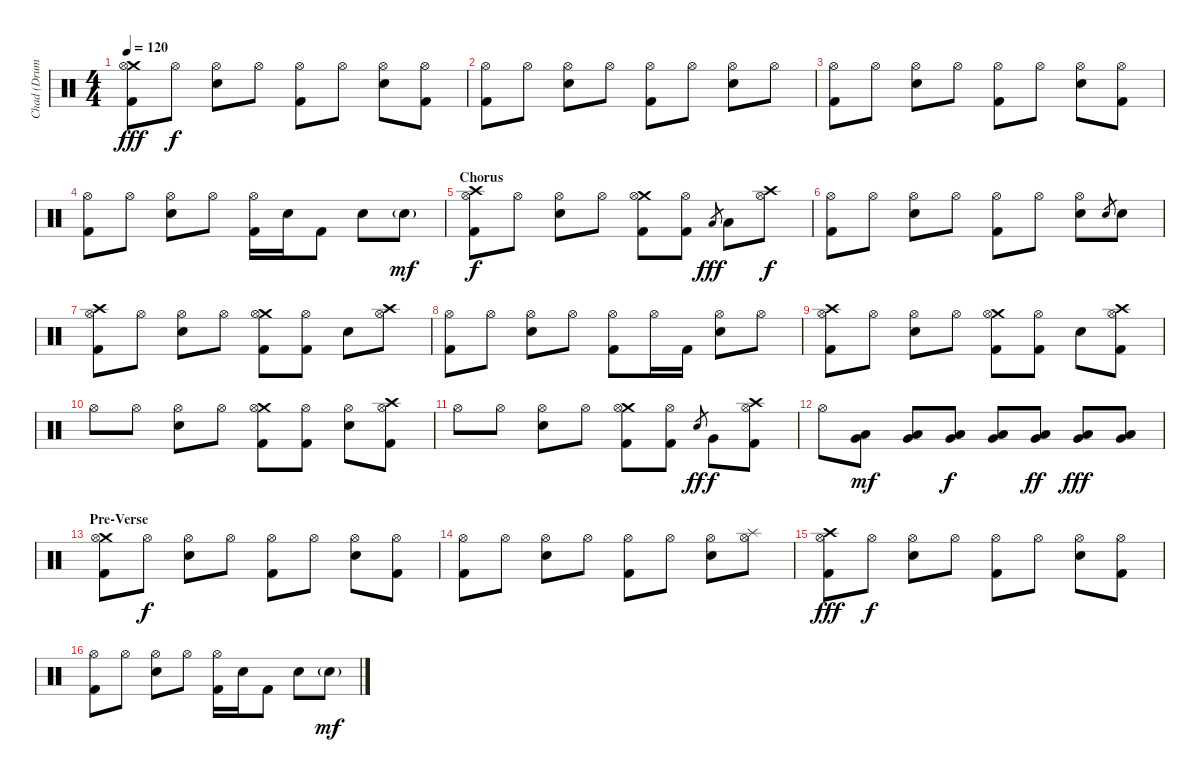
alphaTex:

\track ("Chad (Drums)" "Chad (Drum") {instrument percussion}
\staff {score}
\articulation defaults
\ts (4 4)
\tempo 120
\clef neutral
\ks c
("Crash medium (hit)" "Hi-Hat (open)" "Kick (hit) 2").8{dy fff} "Hi-Hat (open)".8{dy f} ("Hi-Hat (open)" "Snare (hit) 2").8 "Hi-Hat (open)".8 ("Hi-Hat (open)" "Kick (hit) 2").8 "Hi-Hat (open)".8 ("Hi-Hat (open)" "Snare (hit) 2").8 ("Hi-Hat (open)" "Kick (hit) 2").8 |
("Hi-Hat (open)" "Kick (hit) 2").8 "Hi-Hat (open)".8 ("Hi-Hat (open)" "Snare (hit) 2").8 "Hi-Hat (open)".8 ("Hi-Hat (open)" "Kick (hit) 2").8 "Hi-Hat (open)".8 ("Hi-Hat (open)" "Snare (hit) 2").8 "Hi-Hat (open)".8 |
("Hi-Hat (open)" "Kick (hit) 2").8 "Hi-Hat (open)".8 ("Hi-Hat (open)" "Snare (hit) 2").8 "Hi-Hat (open)".8 ("Hi-Hat (open)" "Kick (hit) 2").8 "Hi-Hat (open)".8 ("Hi-Hat (open)" "Snare (hit) 2").8 ("Hi-Hat (open)" "Kick (hit) 2").8 |
("Hi-Hat (open)" "Kick (hit) 2").8 "Hi-Hat (open)".8 ("Hi-Hat (open)" "Snare (hit) 2").8 "Hi-Hat (open)".8 ("Hi-Hat (open)" "Kick (hit) 2").16 "Snare (hit) 2".16 "Kick (hit) 2".8 "Snare (hit) 2".8 "Snare (hit) 2"{g}.8{dy mf} |
\section ("" "Chorus")
("Crash high (hit)" "Hi-Hat (open)" "Kick (hit) 2").8{dy f} "Hi-Hat (open)".8 ("Hi-Hat (open)" "Snare (hit) 2").8 "Hi-Hat (open)".8 ("Crash medium (hit)" "Hi-Hat (open)" "Kick (hit) 2").8 ("Hi-Hat (open)" "Kick (hit) 2").8 "Low Floor Tom (hit)".8{gr dy fff} "Low Floor Tom (hit)".8 ("Crash high (hit)" "Hi-Hat (open)").8{dy f} |
("Hi-Hat (open)" "Kick (hit) 2").8 "Hi-Hat (open)".8 ("Hi-Hat (open)" "Snare (hit) 2").8 "Hi-Hat (open)".8 ("Hi-Hat (open)" "Kick (hit) 2").8 "Hi-Hat (open)".8 ("Hi-Hat (open)" "Snare (hit) 2").8 "Snare (hit) 2".8{gr} "Snare (hit) 2".8 |
("Crash high (hit)" "Hi-Hat (open)" "Kick (hit) 2").8 "Hi-Hat (open)".8 ("Hi-Hat (open)" "Snare (hit) 2").8 "Hi-Hat (open)".8 ("Crash medium (hit)" "Hi-Hat (open)" "Kick (hit) 2").8 ("Hi-Hat (open)" "Kick (hit) 2").8 "Snare (hit) 2".8 ("Crash high (hit)" "Hi-Hat (open)").8 |
("Hi-Hat (open)" "Kick (hit) 2").8 "Hi-Hat (open)".8 ("Hi-Hat (open)" "Snare (hit) 2").8 "Hi-Hat (open)".8 ("Hi-Hat (open)" "Kick (hit) 2").8 "Hi-Hat (open)".16 "Kick (hit) 2".16 ("Hi-Hat (open)" "Snare (hit) 2").8 "Hi-Hat (open)".8 |
("Crash high (hit)" "Hi-Hat (open)" "Kick (hit) 2").8 "Hi-Hat (open)".8 ("Hi-Hat (open)" "Snare (hit) 2").8 "Hi-Hat (open)".8 ("Crash medium (hit)" "Hi-Hat (open)" "Kick (hit) 2").8 ("Hi-Hat (open)" "Kick (hit) 2").8 "Snare (hit) 2".8 ("Crash high (hit)" "Hi-Hat (open)" "Kick (hit) 2").8 |
"Hi-Hat (open)".8 "Hi-Hat (open)".8 ("Hi-Hat (open)" "Snare (hit) 2").8 "Hi-Hat (open)".8 ("Crash medium (hit)" "Hi-Hat (open)" "Kick (hit) 2").8 ("Hi-Hat (open)" "Kick (hit) 2").8 ("Hi-Hat (open)" "Snare (hit) 2").8 ("Crash high (hit)" "Hi-Hat (open)" "Kick (hit) 2").8 |
"Hi-Hat (open)".8 "Hi-Hat (open)".8 ("Hi-Hat (open)" "Snare (hit) 2").8 "Hi-Hat (open)".8 ("Crash medium (hit)" "Hi-Hat (open)" "Kick (hit) 2").8 ("Hi-Hat (open)" "Kick (hit) 2").8 "Snare (hit) 2".8{gr dy ff} "Very Low Tom (hit)".8{dy f} ("Crash high (hit)" "Hi-Hat (open)" "Kick (hit) 2").8 |
"Hi-Hat (open)".8 ("Low Floor Tom (hit)" "Very Low Tom (hit)").8{dy mf} ("Low Floor Tom (hit)" "Very Low Tom (hit)").8 ("Low Floor Tom (hit)" "Very Low Tom (hit)").8{dy f} ("Low Floor Tom (hit)" "Very Low Tom (hit)").8 ("Low Floor Tom (hit)" "Very Low Tom (hit)").8{dy ff} ("Low Floor Tom (hit)" "Very Low Tom (hit)").8{dy fff} ("Low Floor Tom (hit)" "Very Low Tom (hit)").8 |
\section ("" "Pre-Verse")
("Crash medium (hit)" "Hi-Hat (open)" "Kick (hit) 2").8 "Hi-Hat (open)".8{dy f} ("Hi-Hat (open)" "Snare (hit) 2").8 "Hi-Hat (open)".8 ("Hi-Hat (open)" "Kick (hit) 2").8 "Hi-Hat (open)".8 ("Hi-Hat (open)" "Snare (hit) 2").8 ("Hi-Hat (open)" "Kick (hit) 2").8 |
("Hi-Hat (open)" "Kick (hit) 2").8 "Hi-Hat (open)".8 ("Hi-Hat (open)" "Snare (hit) 2").8 "Hi-Hat (open)".8 ("Hi-Hat (open)" "Kick (hit) 2").8 "Hi-Hat (open)".8 ("Hi-Hat (open)" "Snare (hit) 2").8 ("Splash (hit)" "Hi-Hat (open)").8 |
("Crash high (hit)" "Hi-Hat (open)" "Kick (hit) 2").8{dy fff} "Hi-Hat (open)".8{dy f} ("Hi-Hat (open)" "Snare (hit) 2").8 "Hi-Hat (open)".8 ("Hi-Hat (open)" "Kick (hit) 2").8 "Hi-Hat (open)".8 ("Hi-Hat (open)" "Snare (hit) 2").8 ("Hi-Hat (open)" "Kick (hit) 2").8 |
("Hi-Hat (open)" "Kick (hit) 2").8 "Hi-Hat (open)".8 ("Hi-Hat (open)" "Snare (hit) 2").8 "Hi-Hat (open)".8 ("Hi-Hat (open)" "Kick (hit) 2").16 "Snare (hit) 2".16 "Kick (hit) 2".8 "Snare (hit) 2".8 "Snare (hit) 2"{g}.8{dy mf}
